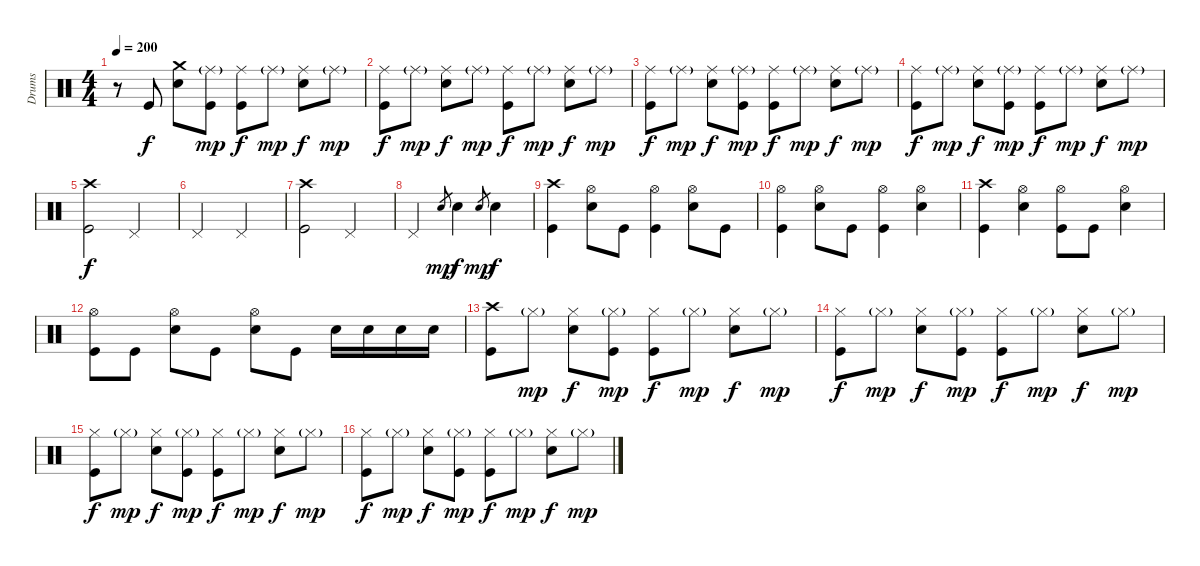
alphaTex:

\track ("Drums" "Drums") {instrument percussion}
\staff {score}
\articulation defaults
\ts (4 4)
\tempo 200
\clef neutral
\ks c
r.8{dy f} "Kick (hit)".8 ("Crash medium (hit)" "Electric Snare (hit)").8 ("Ride (middle)"{g} "Kick (hit)").8{dy mp} ("Ride (middle)" "Kick (hit)").8{dy f} "Ride (middle)"{g}.8{dy mp} ("Ride (middle)" "Electric Snare (hit)").8{dy f} "Ride (middle)"{g}.8{dy mp} |
("Ride (middle)" "Kick (hit)").8{dy f} "Ride (middle)"{g}.8{dy mp} ("Ride (middle)" "Electric Snare (hit)").8{dy f} "Ride (middle)"{g}.8{dy mp} ("Ride (middle)" "Kick (hit)").8{dy f} "Ride (middle)"{g}.8{dy mp} ("Ride (middle)" "Electric Snare (hit)").8{dy f} "Ride (middle)"{g}.8{dy mp} |
("Ride (middle)" "Kick (hit)").8{dy f} "Ride (middle)"{g}.8{dy mp} ("Ride (middle)" "Electric Snare (hit)").8{dy f} ("Ride (middle)"{g} "Kick (hit)").8{dy mp} ("Ride (middle)" "Kick (hit)").8{dy f} "Ride (middle)"{g}.8{dy mp} ("Ride (middle)" "Electric Snare (hit)").8{dy f} "Ride (middle)"{g}.8{dy mp} |
("Ride (middle)" "Kick (hit)").8{dy f} "Ride (middle)"{g}.8{dy mp} ("Ride (middle)" "Electric Snare (hit)").8{dy f} ("Ride (middle)"{g} "Kick (hit)").8{dy mp} ("Ride (middle)" "Kick (hit)").8{dy f} "Ride (middle)"{g}.8{dy mp} ("Ride (middle)" "Electric Snare (hit)").8{dy f} "Ride (middle)"{g}.8{dy mp} |
("Crash high (hit)" "Kick (hit)").2{dy f} "Pedal Hi-Hat (hit)".2 |
"Pedal Hi-Hat (hit)".2 "Pedal Hi-Hat (hit)".2 |
("Crash high (hit)" "Kick (hit)").2 "Pedal Hi-Hat (hit)".2 |
"Pedal Hi-Hat (hit)".2 "Electric Snare (hit)".8{gr dy mp} "Electric Snare (hit)".4{dy f} "Electric Snare (hit)".8{gr dy mp} "Electric Snare (hit)".4{dy f} |
("Crash high (hit)" "Kick (hit)").4 ("Hi-Hat (open)" "Electric Snare (hit)").8 "Kick (hit)".8 ("Hi-Hat (open)" "Kick (hit)").4 ("Hi-Hat (open)" "Electric Snare (hit)").8 "Kick (hit)".8 |
("Hi-Hat (open)" "Kick (hit)").4 ("Hi-Hat (open)" "Electric Snare (hit)").8 "Kick (hit)".8 ("Hi-Hat (open)" "Kick (hit)").4 ("Hi-Hat (open)" "Electric Snare (hit)").4 |
("Crash high (hit)" "Kick (hit)").4 ("Hi-Hat (open)" "Electric Snare (hit)").4 ("Hi-Hat (open)" "Kick (hit)").8 "Kick (hit)".8 ("Hi-Hat (open)" "Electric Snare (hit)").4 |
("Hi-Hat (open)" "Kick (hit)").8 "Kick (hit)".8 ("Hi-Hat (open)" "Electric Snare (hit)").8 "Kick (hit)".8 ("Hi-Hat (open)" "Electric Snare (hit)").8 "Kick (hit)".8 "Electric Snare (hit)".16 "Electric Snare (hit)".16 "Electric Snare (hit)".16 "Electric Snare (hit)".16 |
("Crash high (hit)" "Kick (hit)").8 "Hi-Hat (closed)"{g}.8{dy mp} ("Hi-Hat (closed)" "Electric Snare (hit)").8{dy f} ("Hi-Hat (closed)"{g} "Kick (hit)").8{dy mp} ("Hi-Hat (closed)" "Kick (hit)").8{dy f} "Hi-Hat (closed)"{g}.8{dy mp} ("Hi-Hat (closed)" "Electric Snare (hit)").8{dy f} "Hi-Hat (closed)"{g}.8{dy mp} |
("Hi-Hat (closed)" "Kick (hit)").8{dy f} "Hi-Hat (closed)"{g}.8{dy mp} ("Hi-Hat (closed)" "Electric Snare (hit)").8{dy f} ("Hi-Hat (closed)"{g} "Kick (hit)").8{dy mp} ("Hi-Hat (closed)" "Kick (hit)").8{dy f} "Hi-Hat (closed)"{g}.8{dy mp} ("Hi-Hat (closed)" "Electric Snare (hit)").8{dy f} "Hi-Hat (closed)"{g}.8{dy mp} |
("Hi-Hat (closed)" "Kick (hit)").8{dy f} "Hi-Hat (closed)"{g}.8{dy mp} ("Hi-Hat (closed)" "Electric Snare (hit)").8{dy f} ("Hi-Hat (closed)"{g} "Kick (hit)").8{dy mp} ("Hi-Hat (closed)" "Kick (hit)").8{dy f} "Hi-Hat (closed)"{g}.8{dy mp} ("Hi-Hat (closed)" "Electric Snare (hit)").8{dy f} "Hi-Hat (closed)"{g}.8{dy mp} |
("Hi-Hat (closed)" "Kick (hit)").8{dy f} "Hi-Hat (closed)"{g}.8{dy mp} ("Hi-Hat (closed)" "Electric Snare (hit)").8{dy f} ("Hi-Hat (closed)"{g} "Kick (hit)").8{dy mp} ("Hi-Hat (closed)" "Kick (hit)").8{dy f} "Hi-Hat (closed)"{g}.8{dy mp} ("Hi-Hat (closed)" "Electric Snare (hit)").8{dy f} "Hi-Hat (closed)"{g}.8{dy mp}
